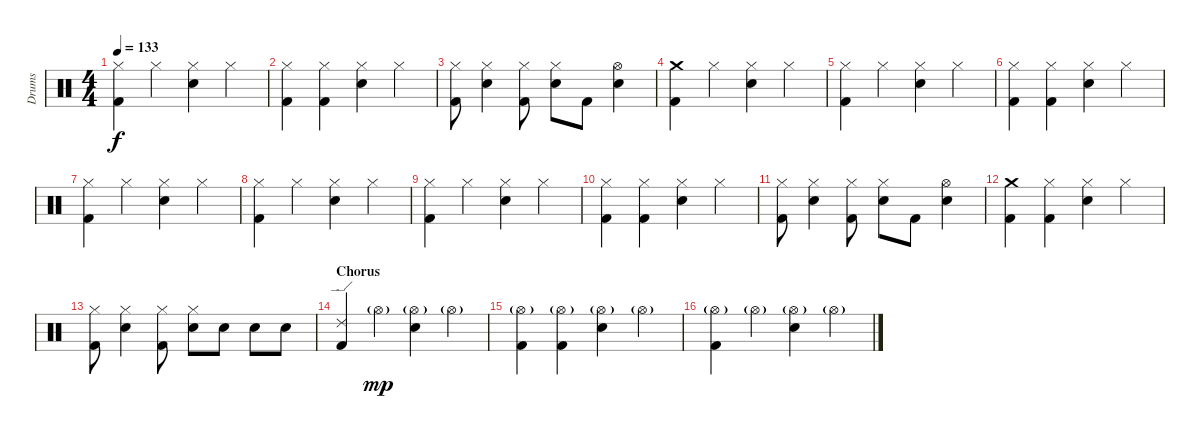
\track ("Drums" "Drums") {instrument percussion}
\staff {score}
\articulation defaults
\ts (4 4)
\tempo 133
\clef neutral
\ks c
("Hi-Hat (closed)" "Kick (hit) 2").4{dy f} "Hi-Hat (closed)".4 ("Hi-Hat (closed)" "Electric Snare (hit)").4 "Hi-Hat (closed)".4 |
("Hi-Hat (closed)" "Kick (hit) 2").4 ("Hi-Hat (closed)" "Kick (hit) 2").4 ("Hi-Hat (closed)" "Electric Snare (hit)").4 "Hi-Hat (closed)".4 |
("Hi-Hat (closed)" "Kick (hit) 2").8 ("Hi-Hat (closed)" "Electric Snare (hit)").4 ("Hi-Hat (closed)" "Kick (hit) 2").8 ("Hi-Hat (closed)" "Electric Snare (hit)").8 "Kick (hit) 2".8 ("Hi-Hat (open)" "Electric Snare (hit)").4 |
("Crash medium (hit)" "Kick (hit) 2").4 "Hi-Hat (closed)".4 ("Hi-Hat (closed)" "Electric Snare (hit)").4 "Hi-Hat (closed)".4 |
("Hi-Hat (closed)" "Kick (hit) 2").4 "Hi-Hat (closed)".4 ("Hi-Hat (closed)" "Electric Snare (hit)").4 "Hi-Hat (closed)".4 |
("Hi-Hat (closed)" "Kick (hit) 2").4 ("Hi-Hat (closed)" "Kick (hit) 2").4 ("Hi-Hat (closed)" "Electric Snare (hit)").4 "Hi-Hat (closed)".4 |
("Hi-Hat (closed)" "Kick (hit) 2").4 "Hi-Hat (closed)".4 ("Hi-Hat (closed)" "Electric Snare (hit)").4 "Hi-Hat (closed)".4 |
("Hi-Hat (closed)" "Kick (hit) 2").4 "Hi-Hat (closed)".4 ("Hi-Hat (closed)" "Electric Snare (hit)").4 "Hi-Hat (closed)".4 |
("Hi-Hat (closed)" "Kick (hit) 2").4 "Hi-Hat (closed)".4 ("Hi-Hat (closed)" "Electric Snare (hit)").4 "Hi-Hat (closed)".4 |
("Hi-Hat (closed)" "Kick (hit) 2").4 ("Hi-Hat (closed)" "Kick (hit) 2").4 ("Hi-Hat (closed)" "Electric Snare (hit)").4 "Hi-Hat (closed)".4 |
("Hi-Hat (closed)" "Kick (hit) 2").8 ("Hi-Hat (closed)" "Electric Snare (hit)").4 ("Hi-Hat (closed)" "Kick (hit) 2").8 ("Hi-Hat (closed)" "Electric Snare (hit)").8 "Kick (hit) 2".8 ("Hi-Hat (open)" "Electric Snare (hit)").4 |
("Crash medium (hit)" "Kick (hit) 2").4 ("Hi-Hat (closed)" "Kick (hit) 2").4 ("Hi-Hat (closed)" "Electric Snare (hit)").4 "Hi-Hat (closed)".4 |
("Hi-Hat (closed)" "Kick (hit) 2").8 ("Hi-Hat (closed)" "Electric Snare (hit)").4 ("Hi-Hat (closed)" "Kick (hit) 2").8 ("Hi-Hat (closed)" "Electric Snare (hit)").8 "Electric Snare (hit)".8 "Electric Snare (hit)".8 "Electric Snare (hit)".8 |
\section ("" "Chorus")
("Ride (edge) 2" "Kick (hit) 2").4 "Hi-Hat (open)"{g}.4{dy mp} ("Hi-Hat (open)"{g} "Electric Snare (hit)").4 "Hi-Hat (open)"{g}.4 |
("Hi-Hat (open)"{g} "Kick (hit) 2").4 ("Hi-Hat (open)"{g} "Kick (hit) 2").4 ("Hi-Hat (open)"{g} "Electric Snare (hit)").4 "Hi-Hat (open)"{g}.4 |
("Hi-Hat (open)"{g} "Kick (hit) 2").4 "Hi-Hat (open)"{g}.4 ("Hi-Hat (open)"{g} "Electric Snare (hit)").4 "Hi-Hat (open)"{g}.4
